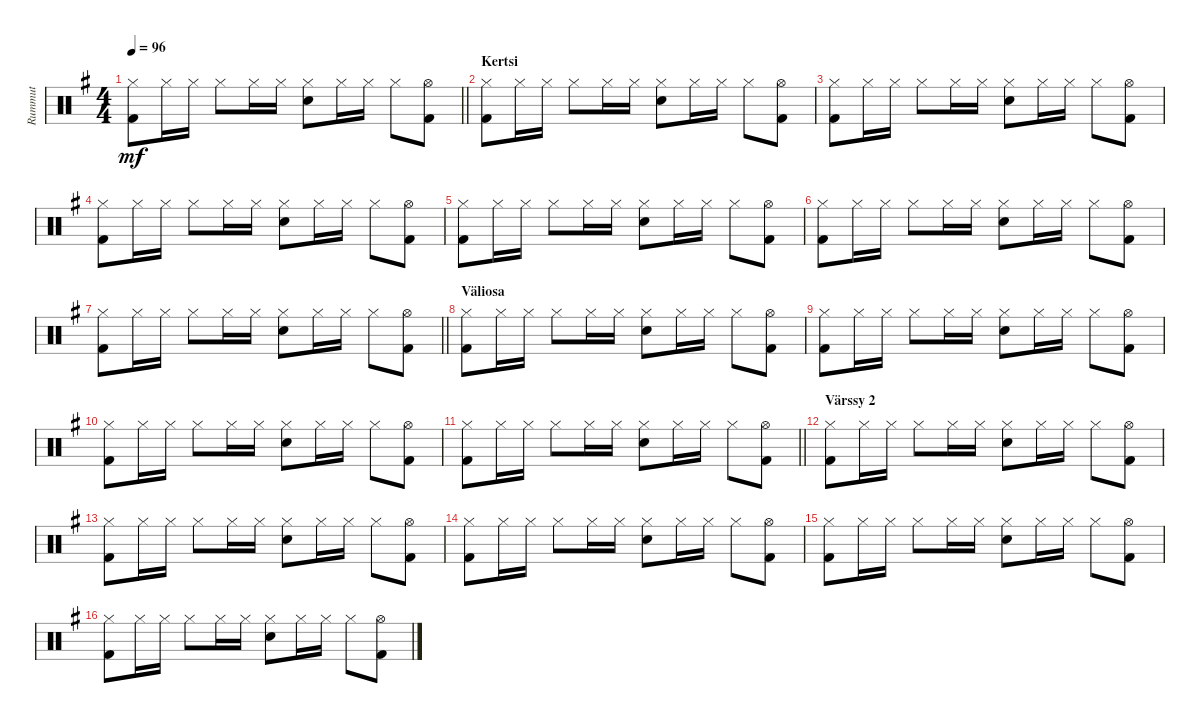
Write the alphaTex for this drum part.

\track ("Rummut" "Rummut") {instrument percussion}
\staff {score}
\articulation defaults
\ts (4 4)
\tempo 96
\clef neutral
\barLineRight lightlight
\ks g
("Kick (hit) 2" "Hi-Hat (closed)").8{dy mf} "Hi-Hat (closed)".16 "Hi-Hat (closed)".16 "Hi-Hat (closed)".8 "Hi-Hat (closed)".16 "Hi-Hat (closed)".16 ("Hi-Hat (closed)" "Snare (hit) 2").8 "Hi-Hat (closed)".16 "Hi-Hat (closed)".16 "Hi-Hat (closed)".8 ("Kick (hit) 2" "Hi-Hat (open)").8 |
\section ("" "Kertsi")
("Kick (hit) 2" "Hi-Hat (closed)").8 "Hi-Hat (closed)".16 "Hi-Hat (closed)".16 "Hi-Hat (closed)".8 "Hi-Hat (closed)".16 "Hi-Hat (closed)".16 ("Hi-Hat (closed)" "Snare (hit) 2").8 "Hi-Hat (closed)".16 "Hi-Hat (closed)".16 "Hi-Hat (closed)".8 ("Kick (hit) 2" "Hi-Hat (open)").8 |
("Kick (hit) 2" "Hi-Hat (closed)").8 "Hi-Hat (closed)".16 "Hi-Hat (closed)".16 "Hi-Hat (closed)".8 "Hi-Hat (closed)".16 "Hi-Hat (closed)".16 ("Hi-Hat (closed)" "Snare (hit) 2").8 "Hi-Hat (closed)".16 "Hi-Hat (closed)".16 "Hi-Hat (closed)".8 ("Kick (hit) 2" "Hi-Hat (open)").8 |
("Kick (hit) 2" "Hi-Hat (closed)").8 "Hi-Hat (closed)".16 "Hi-Hat (closed)".16 "Hi-Hat (closed)".8 "Hi-Hat (closed)".16 "Hi-Hat (closed)".16 ("Hi-Hat (closed)" "Snare (hit) 2").8 "Hi-Hat (closed)".16 "Hi-Hat (closed)".16 "Hi-Hat (closed)".8 ("Kick (hit) 2" "Hi-Hat (open)").8 |
("Kick (hit) 2" "Hi-Hat (closed)").8 "Hi-Hat (closed)".16 "Hi-Hat (closed)".16 "Hi-Hat (closed)".8 "Hi-Hat (closed)".16 "Hi-Hat (closed)".16 ("Hi-Hat (closed)" "Snare (hit) 2").8 "Hi-Hat (closed)".16 "Hi-Hat (closed)".16 "Hi-Hat (closed)".8 ("Kick (hit) 2" "Hi-Hat (open)").8 |
("Kick (hit) 2" "Hi-Hat (closed)").8 "Hi-Hat (closed)".16 "Hi-Hat (closed)".16 "Hi-Hat (closed)".8 "Hi-Hat (closed)".16 "Hi-Hat (closed)".16 ("Hi-Hat (closed)" "Snare (hit) 2").8 "Hi-Hat (closed)".16 "Hi-Hat (closed)".16 "Hi-Hat (closed)".8 ("Kick (hit) 2" "Hi-Hat (open)").8 |
\barLineRight lightlight
("Kick (hit) 2" "Hi-Hat (closed)").8 "Hi-Hat (closed)".16 "Hi-Hat (closed)".16 "Hi-Hat (closed)".8 "Hi-Hat (closed)".16 "Hi-Hat (closed)".16 ("Hi-Hat (closed)" "Snare (hit) 2").8 "Hi-Hat (closed)".16 "Hi-Hat (closed)".16 "Hi-Hat (closed)".8 ("Kick (hit) 2" "Hi-Hat (open)").8 |
\section ("" "Väliosa")
("Kick (hit) 2" "Hi-Hat (closed)").8 "Hi-Hat (closed)".16 "Hi-Hat (closed)".16 "Hi-Hat (closed)".8 "Hi-Hat (closed)".16 "Hi-Hat (closed)".16 ("Hi-Hat (closed)" "Snare (hit) 2").8 "Hi-Hat (closed)".16 "Hi-Hat (closed)".16 "Hi-Hat (closed)".8 ("Kick (hit) 2" "Hi-Hat (open)").8 |
("Kick (hit) 2" "Hi-Hat (closed)").8 "Hi-Hat (closed)".16 "Hi-Hat (closed)".16 "Hi-Hat (closed)".8 "Hi-Hat (closed)".16 "Hi-Hat (closed)".16 ("Hi-Hat (closed)" "Snare (hit) 2").8 "Hi-Hat (closed)".16 "Hi-Hat (closed)".16 "Hi-Hat (closed)".8 ("Kick (hit) 2" "Hi-Hat (open)").8 |
("Kick (hit) 2" "Hi-Hat (closed)").8 "Hi-Hat (closed)".16 "Hi-Hat (closed)".16 "Hi-Hat (closed)".8 "Hi-Hat (closed)".16 "Hi-Hat (closed)".16 ("Hi-Hat (closed)" "Snare (hit) 2").8 "Hi-Hat (closed)".16 "Hi-Hat (closed)".16 "Hi-Hat (closed)".8 ("Kick (hit) 2" "Hi-Hat (open)").8 |
\barLineRight lightlight
("Kick (hit) 2" "Hi-Hat (closed)").8 "Hi-Hat (closed)".16 "Hi-Hat (closed)".16 "Hi-Hat (closed)".8 "Hi-Hat (closed)".16 "Hi-Hat (closed)".16 ("Hi-Hat (closed)" "Snare (hit) 2").8 "Hi-Hat (closed)".16 "Hi-Hat (closed)".16 "Hi-Hat (closed)".8 ("Kick (hit) 2" "Hi-Hat (open)").8 |
\section ("" "Värssy 2")
("Kick (hit) 2" "Hi-Hat (closed)").8 "Hi-Hat (closed)".16 "Hi-Hat (closed)".16 "Hi-Hat (closed)".8 "Hi-Hat (closed)".16 "Hi-Hat (closed)".16 ("Hi-Hat (closed)" "Snare (hit) 2").8 "Hi-Hat (closed)".16 "Hi-Hat (closed)".16 "Hi-Hat (closed)".8 ("Kick (hit) 2" "Hi-Hat (open)").8 |
("Kick (hit) 2" "Hi-Hat (closed)").8 "Hi-Hat (closed)".16 "Hi-Hat (closed)".16 "Hi-Hat (closed)".8 "Hi-Hat (closed)".16 "Hi-Hat (closed)".16 ("Hi-Hat (closed)" "Snare (hit) 2").8 "Hi-Hat (closed)".16 "Hi-Hat (closed)".16 "Hi-Hat (closed)".8 ("Kick (hit) 2" "Hi-Hat (open)").8 |
("Kick (hit) 2" "Hi-Hat (closed)").8 "Hi-Hat (closed)".16 "Hi-Hat (closed)".16 "Hi-Hat (closed)".8 "Hi-Hat (closed)".16 "Hi-Hat (closed)".16 ("Hi-Hat (closed)" "Snare (hit) 2").8 "Hi-Hat (closed)".16 "Hi-Hat (closed)".16 "Hi-Hat (closed)".8 ("Kick (hit) 2" "Hi-Hat (open)").8 |
("Kick (hit) 2" "Hi-Hat (closed)").8 "Hi-Hat (closed)".16 "Hi-Hat (closed)".16 "Hi-Hat (closed)".8 "Hi-Hat (closed)".16 "Hi-Hat (closed)".16 ("Hi-Hat (closed)" "Snare (hit) 2").8 "Hi-Hat (closed)".16 "Hi-Hat (closed)".16 "Hi-Hat (closed)".8 ("Kick (hit) 2" "Hi-Hat (open)").8 |
("Kick (hit) 2" "Hi-Hat (closed)").8 "Hi-Hat (closed)".16 "Hi-Hat (closed)".16 "Hi-Hat (closed)".8 "Hi-Hat (closed)".16 "Hi-Hat (closed)".16 ("Hi-Hat (closed)" "Snare (hit) 2").8 "Hi-Hat (closed)".16 "Hi-Hat (closed)".16 "Hi-Hat (closed)".8 ("Kick (hit) 2" "Hi-Hat (open)").8
